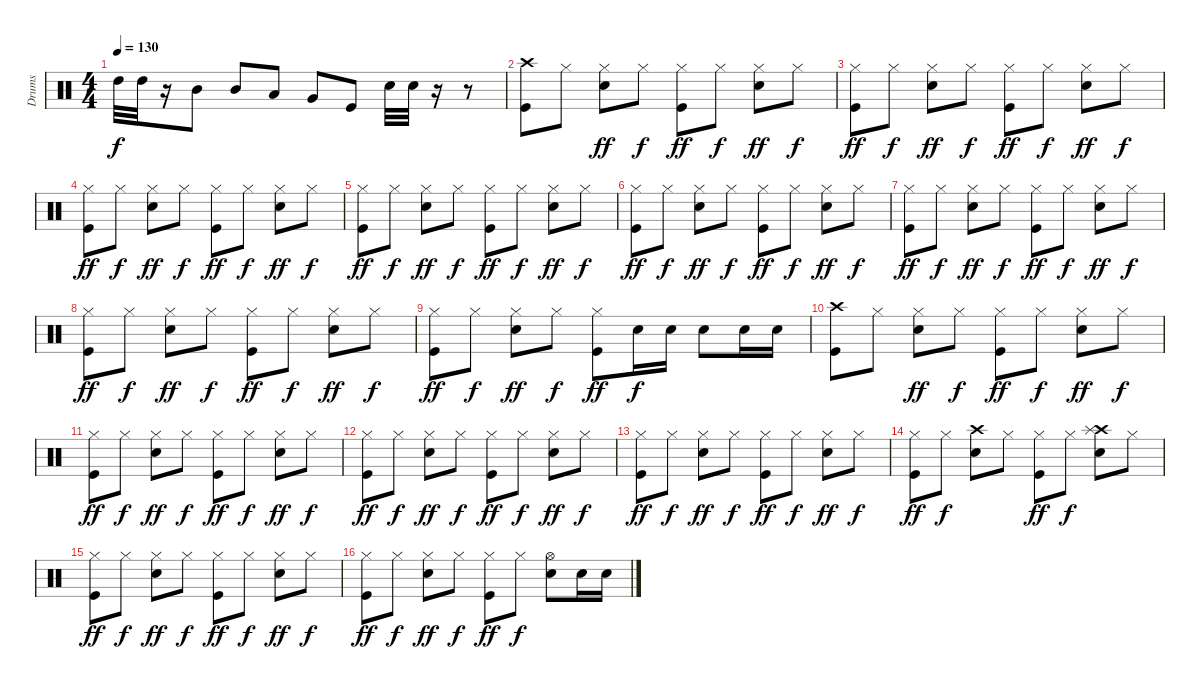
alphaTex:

\track ("Drums" "Drums") {instrument percussion}
\staff {score}
\articulation defaults
\ts (4 4)
\tempo 130
\clef neutral
\ks c "High Tom (hit)".32{dy f} "High Tom (hit)".32
r.16 "Mid Tom (hit)".8 "Mid Tom (hit)".8 "Low Tom (hit)".8 "Very Low Tom (hit)".8 "Kick (hit)".8 "Snare (hit) 2".32 "Snare (hit) 2".32 r.16 r.8 |
("Crash high (hit)" "Kick (hit)").8 "Hi-Hat (closed)".8 ("Hi-Hat (closed)" "Snare (hit) 2").8{dy ff} "Hi-Hat (closed)".8{dy f} ("Hi-Hat (closed)" "Kick (hit)").8{dy ff} "Hi-Hat (closed)".8{dy f} ("Hi-Hat (closed)" "Snare (hit) 2").8{dy ff} "Hi-Hat (closed)".8{dy f} |
("Hi-Hat (closed)" "Kick (hit)").8{dy ff} "Hi-Hat (closed)".8{dy f} ("Hi-Hat (closed)" "Snare (hit) 2").8{dy ff} "Hi-Hat (closed)".8{dy f} ("Hi-Hat (closed)" "Kick (hit)").8{dy ff} "Hi-Hat (closed)".8{dy f} ("Hi-Hat (closed)" "Snare (hit) 2").8{dy ff} "Hi-Hat (closed)".8{dy f} |
("Hi-Hat (closed)" "Kick (hit)").8{dy ff} "Hi-Hat (closed)".8{dy f} ("Hi-Hat (closed)" "Snare (hit) 2").8{dy ff} "Hi-Hat (closed)".8{dy f} ("Hi-Hat (closed)" "Kick (hit)").8{dy ff} "Hi-Hat (closed)".8{dy f} ("Hi-Hat (closed)" "Snare (hit) 2").8{dy ff} "Hi-Hat (closed)".8{dy f} |
("Hi-Hat (closed)" "Kick (hit)").8{dy ff} "Hi-Hat (closed)".8{dy f} ("Hi-Hat (closed)" "Snare (hit) 2").8{dy ff} "Hi-Hat (closed)".8{dy f} ("Hi-Hat (closed)" "Kick (hit)").8{dy ff} "Hi-Hat (closed)".8{dy f} ("Hi-Hat (closed)" "Snare (hit) 2").8{dy ff} "Hi-Hat (closed)".8{dy f} |
("Hi-Hat (closed)" "Kick (hit)").8{dy ff} "Hi-Hat (closed)".8{dy f} ("Hi-Hat (closed)" "Snare (hit) 2").8{dy ff} "Hi-Hat (closed)".8{dy f} ("Hi-Hat (closed)" "Kick (hit)").8{dy ff} "Hi-Hat (closed)".8{dy f} ("Hi-Hat (closed)" "Snare (hit) 2").8{dy ff} "Hi-Hat (closed)".8{dy f} |
("Hi-Hat (closed)" "Kick (hit)").8{dy ff} "Hi-Hat (closed)".8{dy f} ("Hi-Hat (closed)" "Snare (hit) 2").8{dy ff} "Hi-Hat (closed)".8{dy f} ("Hi-Hat (closed)" "Kick (hit)").8{dy ff} "Hi-Hat (closed)".8{dy f} ("Hi-Hat (closed)" "Snare (hit) 2").8{dy ff} "Hi-Hat (closed)".8{dy f} |
("Hi-Hat (closed)" "Kick (hit)").8{dy ff} "Hi-Hat (closed)".8{dy f} ("Hi-Hat (closed)" "Snare (hit) 2").8{dy ff} "Hi-Hat (closed)".8{dy f} ("Hi-Hat (closed)" "Kick (hit)").8{dy ff} "Hi-Hat (closed)".8{dy f} ("Hi-Hat (closed)" "Snare (hit) 2").8{dy ff} "Hi-Hat (closed)".8{dy f} |
("Hi-Hat (closed)" "Kick (hit)").8{dy ff} "Hi-Hat (closed)".8{dy f} ("Hi-Hat (closed)" "Snare (hit) 2").8{dy ff} "Hi-Hat (closed)".8{dy f} ("Hi-Hat (closed)" "Kick (hit)").8{dy ff} "Snare (hit) 2".16{dy f} "Snare (hit) 2".16 "Snare (hit) 2".8 "Snare (hit) 2".16 "Snare (hit) 2".16 |
("Crash high (hit)" "Kick (hit)").8 "Hi-Hat (closed)".8 ("Hi-Hat (closed)" "Snare (hit) 2").8{dy ff} "Hi-Hat (closed)".8{dy f} ("Hi-Hat (closed)" "Kick (hit)").8{dy ff} "Hi-Hat (closed)".8{dy f} ("Hi-Hat (closed)" "Snare (hit) 2").8{dy ff} "Hi-Hat (closed)".8{dy f} |
("Hi-Hat (closed)" "Kick (hit)").8{dy ff} "Hi-Hat (closed)".8{dy f} ("Hi-Hat (closed)" "Snare (hit) 2").8{dy ff} "Hi-Hat (closed)".8{dy f} ("Hi-Hat (closed)" "Kick (hit)").8{dy ff} "Hi-Hat (closed)".8{dy f} ("Hi-Hat (closed)" "Snare (hit) 2").8{dy ff} "Hi-Hat (closed)".8{dy f} |
("Hi-Hat (closed)" "Kick (hit)").8{dy ff} "Hi-Hat (closed)".8{dy f} ("Hi-Hat (closed)" "Snare (hit) 2").8{dy ff} "Hi-Hat (closed)".8{dy f} ("Hi-Hat (closed)" "Kick (hit)").8{dy ff} "Hi-Hat (closed)".8{dy f} ("Hi-Hat (closed)" "Snare (hit) 2").8{dy ff} "Hi-Hat (closed)".8{dy f} |
("Hi-Hat (closed)" "Kick (hit)").8{dy ff} "Hi-Hat (closed)".8{dy f} ("Hi-Hat (closed)" "Snare (hit) 2").8{dy ff} "Hi-Hat (closed)".8{dy f} ("Hi-Hat (closed)" "Kick (hit)").8{dy ff} "Hi-Hat (closed)".8{dy f} ("Hi-Hat (closed)" "Snare (hit) 2").8{dy ff} "Hi-Hat (closed)".8{dy f} |
("Hi-Hat (closed)" "Kick (hit)").8{dy ff} "Hi-Hat (closed)".8{dy f} ("Crash high (hit)" "Snare (hit) 2").8 "Hi-Hat (closed)".8 ("Hi-Hat (closed)" "Kick (hit)").8{dy ff} "Hi-Hat (closed)".8{dy f} ("Crash high (hit)" "Splash (hit)" "Snare (hit) 2").8 "Hi-Hat (closed)".8 |
("Hi-Hat (closed)" "Kick (hit)").8{dy ff} "Hi-Hat (closed)".8{dy f} ("Hi-Hat (closed)" "Snare (hit) 2").8{dy ff} "Hi-Hat (closed)".8{dy f} ("Hi-Hat (closed)" "Kick (hit)").8{dy ff} "Hi-Hat (closed)".8{dy f} ("Hi-Hat (closed)" "Snare (hit) 2").8{dy ff} "Hi-Hat (closed)".8{dy f} |
("Hi-Hat (closed)" "Kick (hit)").8{dy ff} "Hi-Hat (closed)".8{dy f} ("Hi-Hat (closed)" "Snare (hit) 2").8{dy ff} "Hi-Hat (closed)".8{dy f} ("Hi-Hat (closed)" "Kick (hit)").8{dy ff} "Hi-Hat (closed)".8{dy f} ("Hi-Hat (open)" "Snare (hit) 2").8 "Snare (hit) 2".16 "Snare (hit) 2".16
